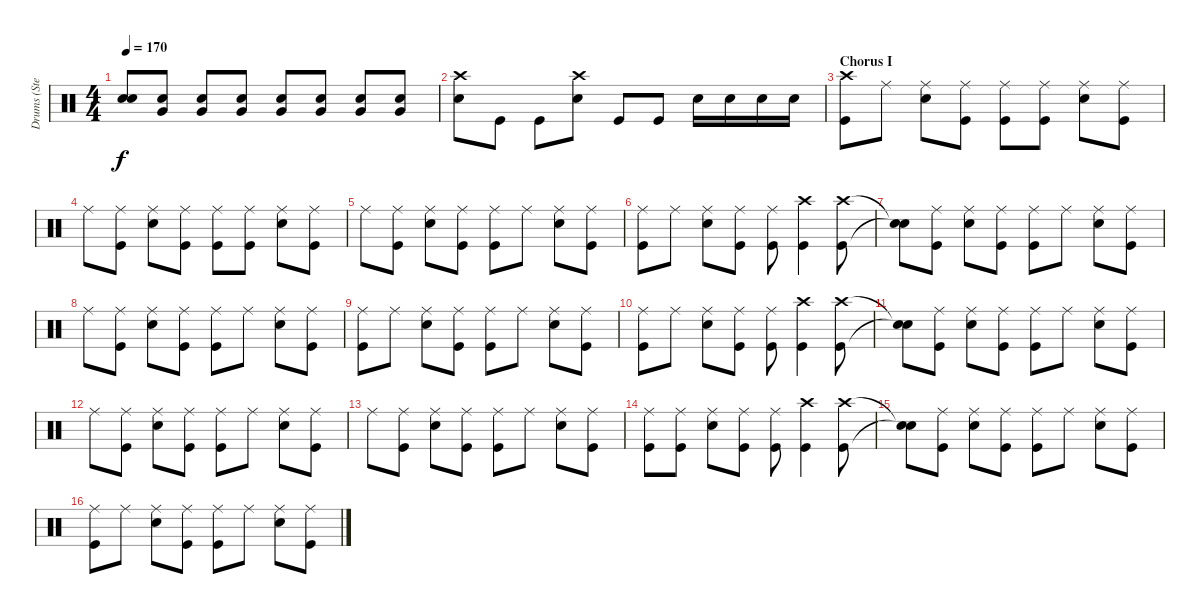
\track ("Drums (Steven)" "Drums (Ste") {instrument percussion}
\staff {score}
\articulation defaults
\ts (4 4)
\tempo 170
\clef neutral
\ks c
("Snare (hit) 2" "Snare (hit) 2").8{dy f} ("Snare (hit) 2" "Very Low Tom (hit)").8 ("Snare (hit) 2" "Very Low Tom (hit)").8 ("Snare (hit) 2" "Very Low Tom (hit)").8 ("Snare (hit) 2" "Very Low Tom (hit)").8 ("Snare (hit) 2" "Very Low Tom (hit)").8 ("Snare (hit) 2" "Very Low Tom (hit)").8 ("Snare (hit) 2" "Very Low Tom (hit)").8 |
("Crash high (hit)" "Snare (hit) 2").8 "Kick (hit)".8 "Kick (hit)".8 ("Crash high (hit)" "Snare (hit) 2").8 "Kick (hit)".8 "Kick (hit)".8 "Electric Snare (hit)".16 "Electric Snare (hit)".16 "Electric Snare (hit)".16 "Electric Snare (hit)".16 |
\section ("" "Chorus I")
("Crash high (hit)" "Kick (hit)").8 "Ride (middle)".8 ("Ride (middle)" "Snare (hit) 2").8 ("Ride (middle)" "Kick (hit)").8 ("Ride (middle)" "Kick (hit)").8 ("Ride (middle)" "Kick (hit)").8 ("Ride (middle)" "Snare (hit) 2").8 ("Ride (middle)" "Kick (hit)").8 |
"Ride (middle)".8 ("Ride (middle)" "Kick (hit)").8 ("Ride (middle)" "Snare (hit) 2").8 ("Ride (middle)" "Kick (hit)").8 ("Ride (middle)" "Kick (hit)").8 ("Ride (middle)" "Kick (hit)").8 ("Ride (middle)" "Snare (hit) 2").8 ("Ride (middle)" "Kick (hit)").8 |
"Ride (middle)".8 ("Ride (middle)" "Kick (hit)").8 ("Ride (middle)" "Snare (hit) 2").8 ("Ride (middle)" "Kick (hit)").8 ("Ride (middle)" "Kick (hit)").8 "Ride (middle)".8 ("Ride (middle)" "Snare (hit) 2").8 ("Ride (middle)" "Kick (hit)").8 |
("Ride (middle)" "Kick (hit)").8 "Ride (middle)".8 ("Ride (middle)" "Snare (hit) 2").8 ("Ride (middle)" "Kick (hit)").8 ("Ride (middle)" "Kick (hit)").8 ("Crash high (hit)" "Kick (hit)").4 ("Crash high (hit)" "Kick (hit)").8 |
("Snare (hit)"{t} "Snare (hit)"{t}).8 ("Ride (middle)" "Kick (hit)").8 ("Ride (middle)" "Snare (hit) 2").8 ("Ride (middle)" "Kick (hit)").8 ("Ride (middle)" "Kick (hit)").8 "Ride (middle)".8 ("Ride (middle)" "Snare (hit) 2").8 ("Ride (middle)" "Kick (hit)").8 |
"Ride (middle)".8 ("Ride (middle)" "Kick (hit)").8 ("Ride (middle)" "Snare (hit) 2").8 ("Ride (middle)" "Kick (hit)").8 ("Ride (middle)" "Kick (hit)").8 "Ride (middle)".8 ("Ride (middle)" "Snare (hit) 2").8 ("Ride (middle)" "Kick (hit)").8 |
("Ride (middle)" "Kick (hit)").8 "Ride (middle)".8 ("Ride (middle)" "Snare (hit) 2").8 ("Ride (middle)" "Kick (hit)").8 ("Ride (middle)" "Kick (hit)").8 "Ride (middle)".8 ("Ride (middle)" "Snare (hit) 2").8 ("Ride (middle)" "Kick (hit)").8 |
("Ride (middle)" "Kick (hit)").8 "Ride (middle)".8 ("Ride (middle)" "Snare (hit) 2").8 ("Ride (middle)" "Kick (hit)").8 ("Ride (middle)" "Kick (hit)").8 ("Crash high (hit)" "Kick (hit)").4 ("Crash high (hit)" "Kick (hit)").8 |
("Snare (hit)"{t} "Snare (hit)"{t}).8 ("Ride (middle)" "Kick (hit)").8 ("Ride (middle)" "Snare (hit) 2").8 ("Ride (middle)" "Kick (hit)").8 ("Ride (middle)" "Kick (hit)").8 "Ride (middle)".8 ("Ride (middle)" "Snare (hit) 2").8 ("Ride (middle)" "Kick (hit)").8 |
"Ride (middle)".8 ("Ride (middle)" "Kick (hit)").8 ("Ride (middle)" "Snare (hit) 2").8 ("Ride (middle)" "Kick (hit)").8 ("Ride (middle)" "Kick (hit)").8 "Ride (middle)".8 ("Ride (middle)" "Snare (hit) 2").8 ("Ride (middle)" "Kick (hit)").8 |
"Ride (middle)".8 ("Ride (middle)" "Kick (hit)").8 ("Ride (middle)" "Snare (hit) 2").8 ("Ride (middle)" "Kick (hit)").8 ("Ride (middle)" "Kick (hit)").8 "Ride (middle)".8 ("Ride (middle)" "Snare (hit) 2").8 ("Ride (middle)" "Kick (hit)").8 |
("Ride (middle)" "Kick (hit)").8 ("Ride (middle)" "Kick (hit)").8 ("Ride (middle)" "Snare (hit) 2").8 ("Ride (middle)" "Kick (hit)").8 ("Ride (middle)" "Kick (hit)").8 ("Crash high (hit)" "Kick (hit)").4 ("Crash high (hit)" "Kick (hit)").8 |
("Snare (hit)"{t} "Snare (hit)"{t}).8 ("Ride (middle)" "Kick (hit)").8 ("Ride (middle)" "Snare (hit) 2").8 ("Ride (middle)" "Kick (hit)").8 ("Ride (middle)" "Kick (hit)").8 "Ride (middle)".8 ("Ride (middle)" "Snare (hit) 2").8 ("Ride (middle)" "Kick (hit)").8 |
("Ride (middle)" "Kick (hit)").8 "Ride (middle)".8 ("Ride (middle)" "Snare (hit) 2").8 ("Ride (middle)" "Kick (hit)").8 ("Ride (middle)" "Kick (hit)").8 "Ride (middle)".8 ("Ride (middle)" "Snare (hit) 2").8 ("Ride (middle)" "Kick (hit)").8
